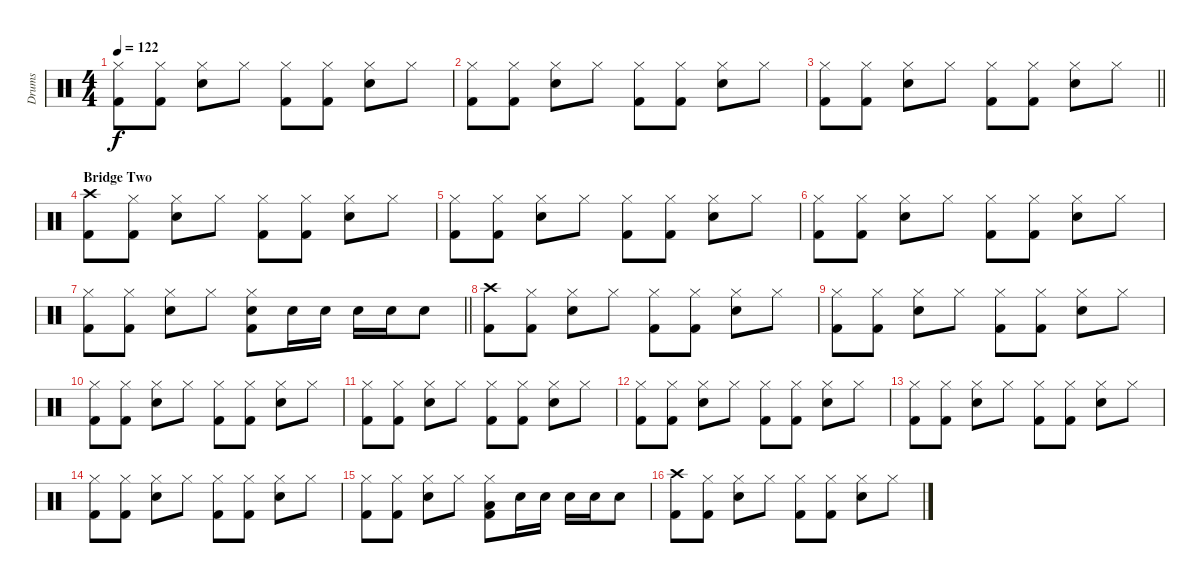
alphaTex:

\track ("Drums" "Drums") {instrument percussion}
\staff {score}
\articulation defaults
\ts (4 4)
\tempo 122
\clef neutral
\ks c
("Hi-Hat (closed)" "Kick (hit) 2").8{dy f} ("Hi-Hat (closed)" "Kick (hit) 2").8 ("Hi-Hat (closed)" "Snare (hit) 2").8 "Hi-Hat (closed)".8 ("Hi-Hat (closed)" "Kick (hit) 2").8 ("Hi-Hat (closed)" "Kick (hit) 2").8 ("Hi-Hat (closed)" "Snare (hit) 2").8 "Hi-Hat (closed)".8 |
("Hi-Hat (closed)" "Kick (hit) 2").8 ("Hi-Hat (closed)" "Kick (hit) 2").8 ("Hi-Hat (closed)" "Snare (hit) 2").8 "Hi-Hat (closed)".8 ("Hi-Hat (closed)" "Kick (hit) 2").8 ("Hi-Hat (closed)" "Kick (hit) 2").8 ("Hi-Hat (closed)" "Snare (hit) 2").8 "Hi-Hat (closed)".8 |
\barLineRight lightlight
("Hi-Hat (closed)" "Kick (hit) 2").8 ("Hi-Hat (closed)" "Kick (hit) 2").8 ("Hi-Hat (closed)" "Snare (hit) 2").8 "Hi-Hat (closed)".8 ("Hi-Hat (closed)" "Kick (hit) 2").8 ("Hi-Hat (closed)" "Kick (hit) 2").8 ("Hi-Hat (closed)" "Snare (hit) 2").8 "Hi-Hat (closed)".8 |
\section ("" "Bridge Two")
("Crash high (hit)" "Kick (hit) 2").8 ("Hi-Hat (closed)" "Kick (hit) 2").8 ("Hi-Hat (closed)" "Snare (hit) 2").8 "Hi-Hat (closed)".8 ("Hi-Hat (closed)" "Kick (hit) 2").8 ("Hi-Hat (closed)" "Kick (hit) 2").8 ("Hi-Hat (closed)" "Snare (hit) 2").8 "Hi-Hat (closed)".8 |
("Hi-Hat (closed)" "Kick (hit) 2").8 ("Hi-Hat (closed)" "Kick (hit) 2").8 ("Hi-Hat (closed)" "Snare (hit) 2").8 "Hi-Hat (closed)".8 ("Hi-Hat (closed)" "Kick (hit) 2").8 ("Hi-Hat (closed)" "Kick (hit) 2").8 ("Hi-Hat (closed)" "Snare (hit) 2").8 "Hi-Hat (closed)".8 |
("Hi-Hat (closed)" "Kick (hit) 2").8 ("Hi-Hat (closed)" "Kick (hit) 2").8 ("Hi-Hat (closed)" "Snare (hit) 2").8 "Hi-Hat (closed)".8 ("Hi-Hat (closed)" "Kick (hit) 2").8 ("Hi-Hat (closed)" "Kick (hit) 2").8 ("Hi-Hat (closed)" "Snare (hit) 2").8 "Hi-Hat (closed)".8 |
\barLineRight lightlight
("Hi-Hat (closed)" "Kick (hit) 2").8 ("Hi-Hat (closed)" "Kick (hit) 2").8 ("Hi-Hat (closed)" "Snare (hit) 2").8 "Hi-Hat (closed)".8 ("Hi-Hat (closed)" "Snare (hit) 2" "Kick (hit) 2").8 "Snare (hit) 2".16 "Snare (hit) 2".16 "Snare (hit) 2".16 "Snare (hit) 2".16 "Snare (hit) 2".8 |
("Crash high (hit)" "Kick (hit) 2").8 ("Hi-Hat (closed)" "Kick (hit) 2").8 ("Hi-Hat (closed)" "Snare (hit) 2").8 "Hi-Hat (closed)".8 ("Hi-Hat (closed)" "Kick (hit) 2").8 ("Hi-Hat (closed)" "Kick (hit) 2").8 ("Hi-Hat (closed)" "Snare (hit) 2").8 "Hi-Hat (closed)".8 |
("Hi-Hat (closed)" "Kick (hit) 2").8 ("Hi-Hat (closed)" "Kick (hit) 2").8 ("Hi-Hat (closed)" "Snare (hit) 2").8 "Hi-Hat (closed)".8 ("Hi-Hat (closed)" "Kick (hit) 2").8 ("Hi-Hat (closed)" "Kick (hit) 2").8 ("Hi-Hat (closed)" "Snare (hit) 2").8 "Hi-Hat (closed)".8 |
("Hi-Hat (closed)" "Kick (hit) 2").8 ("Hi-Hat (closed)" "Kick (hit) 2").8 ("Hi-Hat (closed)" "Snare (hit) 2").8 "Hi-Hat (closed)".8 ("Hi-Hat (closed)" "Kick (hit) 2").8 ("Hi-Hat (closed)" "Kick (hit) 2").8 ("Hi-Hat (closed)" "Snare (hit) 2").8 "Hi-Hat (closed)".8 |
("Hi-Hat (closed)" "Kick (hit) 2").8 ("Hi-Hat (closed)" "Kick (hit) 2").8 ("Hi-Hat (closed)" "Snare (hit) 2").8 "Hi-Hat (closed)".8 ("Hi-Hat (closed)" "Kick (hit) 2").8 ("Hi-Hat (closed)" "Kick (hit) 2").8 ("Hi-Hat (closed)" "Snare (hit) 2").8 "Hi-Hat (closed)".8 |
("Hi-Hat (closed)" "Kick (hit) 2").8 ("Hi-Hat (closed)" "Kick (hit) 2").8 ("Hi-Hat (closed)" "Snare (hit) 2").8 "Hi-Hat (closed)".8 ("Hi-Hat (closed)" "Kick (hit) 2").8 ("Hi-Hat (closed)" "Kick (hit) 2").8 ("Hi-Hat (closed)" "Snare (hit) 2").8 "Hi-Hat (closed)".8 |
("Hi-Hat (closed)" "Kick (hit) 2").8 ("Hi-Hat (closed)" "Kick (hit) 2").8 ("Hi-Hat (closed)" "Snare (hit) 2").8 "Hi-Hat (closed)".8 ("Hi-Hat (closed)" "Kick (hit) 2").8 ("Hi-Hat (closed)" "Kick (hit) 2").8 ("Hi-Hat (closed)" "Snare (hit) 2").8 "Hi-Hat (closed)".8 |
("Hi-Hat (closed)" "Kick (hit) 2").8 ("Hi-Hat (closed)" "Kick (hit) 2").8 ("Hi-Hat (closed)" "Snare (hit) 2").8 "Hi-Hat (closed)".8 ("Hi-Hat (closed)" "Kick (hit) 2").8 ("Hi-Hat (closed)" "Kick (hit) 2").8 ("Hi-Hat (closed)" "Snare (hit) 2").8 "Hi-Hat (closed)".8 |
("Hi-Hat (closed)" "Kick (hit) 2").8 ("Hi-Hat (closed)" "Kick (hit) 2").8 ("Hi-Hat (closed)" "Snare (hit) 2").8 "Hi-Hat (closed)".8 ("Hi-Hat (closed)" "Low Tom (hit)" "Kick (hit) 2").8 "Snare (hit) 2".16 "Snare (hit) 2".16 "Snare (hit) 2".16 "Snare (hit) 2".16 "Snare (hit) 2".8 |
("Crash high (hit)" "Kick (hit) 2").8 ("Hi-Hat (closed)" "Kick (hit) 2").8 ("Hi-Hat (closed)" "Snare (hit) 2").8 "Hi-Hat (closed)".8 ("Hi-Hat (closed)" "Kick (hit) 2").8 ("Hi-Hat (closed)" "Kick (hit) 2").8 ("Hi-Hat (closed)" "Snare (hit) 2").8 "Hi-Hat (closed)".8
